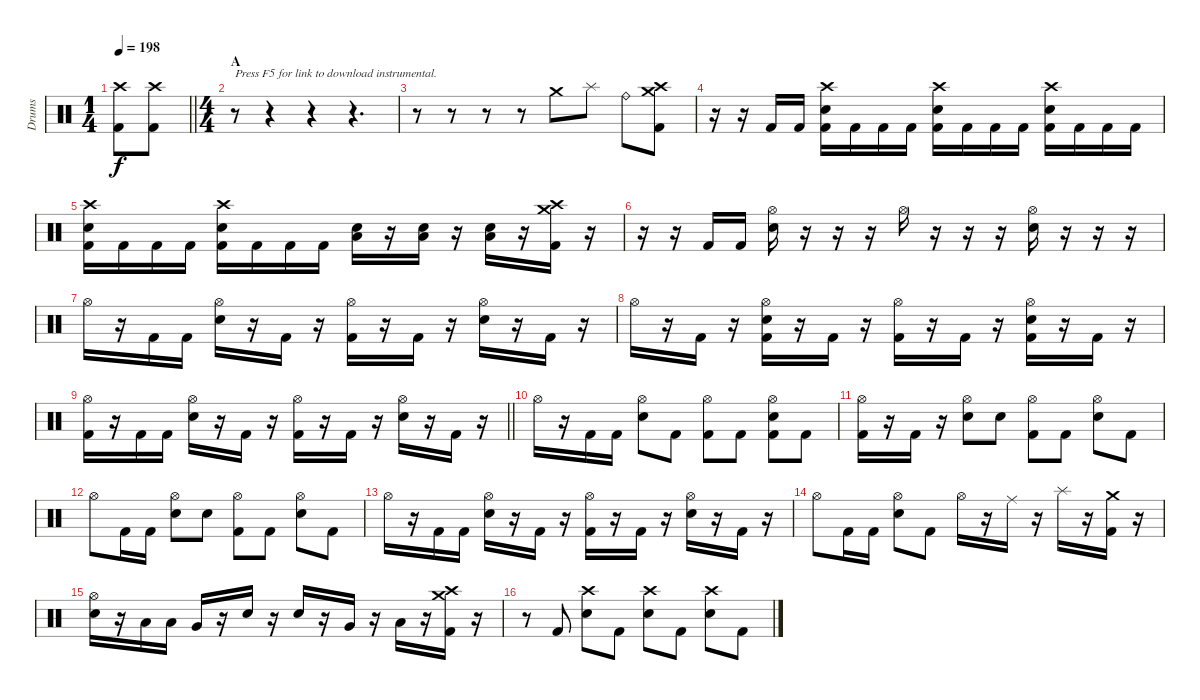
\track ("Drums" "Drums") {instrument percussion}
\staff {score}
\articulation defaults
\ts (1 4)
\section ("" "")
\tempo 198
\clef neutral
\barLineRight lightlight
\ks c
("Crash high (hit)" "Kick (hit) 2").8{dy f} ("Crash high (hit)" "Kick (hit) 2").8 |
\ts (4 4)
\section ("" "A")
r.8{txt "Press F5 for link to download instrumental."} r.4{volume 0} r.4 r.4{d} |
r.8 r.8 r.8 r.8 "Crash medium (hit)".8{volume 16} "Splash (hit)".8 "Ride (bell)".8 ("Crash high (hit)" "Crash medium (hit)" "Kick (hit) 2").8 |
r.16 r.16 "Kick (hit) 2".16 "Kick (hit) 2".16 ("Crash high (hit)" "Electric Snare (hit)" "Kick (hit) 2").16 "Kick (hit) 2".16 "Kick (hit) 2".16 "Kick (hit) 2".16 ("Crash high (hit)" "Electric Snare (hit)" "Kick (hit) 2").16 "Kick (hit) 2".16 "Kick (hit) 2".16 "Kick (hit) 2".16 ("Crash high (hit)" "Electric Snare (hit)" "Kick (hit) 2").16 "Kick (hit) 2".16 "Kick (hit) 2".16 "Kick (hit) 2".16 |
("Crash high (hit)" "Electric Snare (hit)" "Kick (hit) 2").16 "Kick (hit) 2".16 "Kick (hit) 2".16 "Kick (hit) 2".16 ("Crash high (hit)" "Electric Snare (hit)" "Kick (hit) 2").16 "Kick (hit) 2".16 "Kick (hit) 2".16 "Kick (hit) 2".16 ("Low Floor Tom (hit)" "Electric Snare (hit)").16 r.16 ("Low Floor Tom (hit)" "Electric Snare (hit)").16 r.16 ("Low Floor Tom (hit)" "Electric Snare (hit)").16 r.16 ("Crash high (hit)" "Crash medium (hit)" "Kick (hit) 2").16 r.16 |
r.16 r.16 "Kick (hit) 2".16 "Kick (hit) 2".16 ("Hi-Hat (open)" "Electric Snare (hit)").16 r.16 r.16 r.16 "Hi-Hat (open)".16 r.16 r.16 r.16 ("Hi-Hat (open)" "Electric Snare (hit)").16 r.16 r.16 r.16 |
"Hi-Hat (open)".16 r.16 "Kick (hit) 2".16 "Kick (hit) 2".16 ("Hi-Hat (open)" "Electric Snare (hit)").16 r.16 "Kick (hit) 2".16 r.16 ("Hi-Hat (open)" "Kick (hit) 2").16 r.16 "Kick (hit) 2".16 r.16 ("Hi-Hat (open)" "Electric Snare (hit)").16 r.16 "Kick (hit) 2".16 r.16 |
"Hi-Hat (open)".16 r.16 "Kick (hit) 2".16 r.16 ("Hi-Hat (open)" "Electric Snare (hit)" "Kick (hit) 2").16 r.16 "Kick (hit) 2".16 r.16 ("Hi-Hat (open)" "Kick (hit) 2").16 r.16 "Kick (hit) 2".16 r.16 ("Hi-Hat (open)" "Electric Snare (hit)" "Kick (hit) 2").16 r.16 "Kick (hit) 2".16 r.16 |
\barLineRight lightlight
("Hi-Hat (open)" "Kick (hit) 2").16 r.16 "Kick (hit) 2".16 "Kick (hit) 2".16 ("Hi-Hat (open)" "Electric Snare (hit)").16 r.16 "Kick (hit) 2".16 r.16 ("Hi-Hat (open)" "Kick (hit) 2").16 r.16 "Kick (hit) 2".16 r.16 ("Hi-Hat (open)" "Electric Snare (hit)").16 r.16 "Kick (hit) 2".16 r.16 |
\section ("" "")
"Hi-Hat (open)".16 r.16 "Kick (hit) 2".16 "Kick (hit) 2".16 ("Hi-Hat (open)" "Electric Snare (hit)").8 "Kick (hit) 2".8 ("Hi-Hat (open)" "Kick (hit) 2").8 "Kick (hit) 2".8 ("Hi-Hat (open)" "Electric Snare (hit)" "Kick (hit) 2").8 "Kick (hit) 2".8 |
("Hi-Hat (open)" "Kick (hit) 2").16 r.16 "Kick (hit) 2".16 r.16 ("Hi-Hat (open)" "Electric Snare (hit)").8 "Electric Snare (hit)".8 ("Hi-Hat (open)" "Kick (hit) 2").8 "Kick (hit) 2".8 ("Hi-Hat (open)" "Electric Snare (hit)").8 "Kick (hit) 2".8 |
"Hi-Hat (open)".8 "Kick (hit) 2".16 "Kick (hit) 2".16 ("Hi-Hat (open)" "Electric Snare (hit)").8 "Electric Snare (hit)".8 ("Hi-Hat (open)" "Kick (hit) 2").8 "Kick (hit) 2".8 ("Hi-Hat (open)" "Electric Snare (hit)").8 "Kick (hit) 2".8 |
"Hi-Hat (open)".16 r.16 "Kick (hit) 2".16 "Kick (hit) 2".16 ("Hi-Hat (open)" "Electric Snare (hit)").16 r.16 "Kick (hit) 2".16 r.16 ("Hi-Hat (open)" "Kick (hit) 2").16 r.16 "Kick (hit) 2".16 r.16 ("Hi-Hat (open)" "Electric Snare (hit)").16 r.16 "Kick (hit) 2".16 r.16 |
"Hi-Hat (open)".8 "Kick (hit) 2".16 "Kick (hit) 2".16 ("Hi-Hat (open)" "Electric Snare (hit)").8 "Kick (hit) 2".8 "Hi-Hat (open)".16 r.16 "Ride (middle)".16 r.16 "Splash (hit)".16 r.16 ("Crash medium (hit)" "Kick (hit) 2").16 r.16 |
("Hi-Hat (open)" "Electric Snare (hit)").16 r.16 "Low Tom (hit)".16 "Low Tom (hit)".16 "Very Low Tom (hit)".16 r.16 "Electric Snare (hit)".16 r.16 "Electric Snare (hit)".16 r.16 "Very Low Tom (hit)".16 r.16 "Low Floor Tom (hit)".16 r.16 ("Crash high (hit)" "Crash medium (hit)" "Kick (hit) 2").16 r.16 |
r.8 "Kick (hit) 2".8 ("Crash high (hit)" "Electric Snare (hit)").8 "Kick (hit) 2".8 ("Crash high (hit)" "Electric Snare (hit)").8 "Kick (hit) 2".8 ("Crash high (hit)" "Electric Snare (hit)").8 "Kick (hit) 2".8
